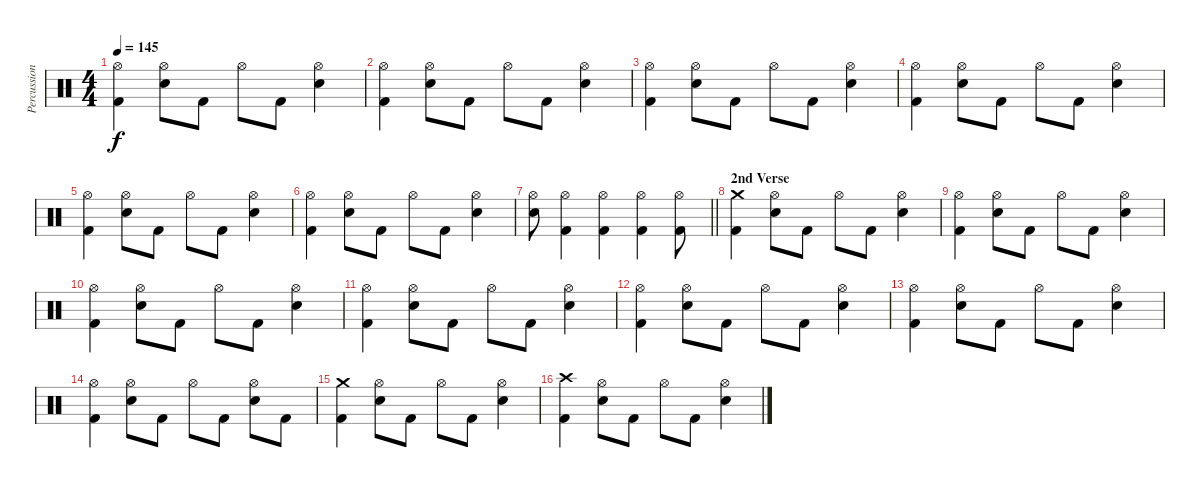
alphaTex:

\track ("Percussion" "Percussion") {instrument percussion}
\staff {score}
\articulation defaults
\ts (4 4)
\tempo 145
\clef neutral
\ks c
("Kick (hit) 2" "Hi-Hat (open)").4{dy f} ("Electric Snare (hit)" "Hi-Hat (open)").8 "Kick (hit) 2".8 "Hi-Hat (open)".8 "Kick (hit) 2".8 ("Electric Snare (hit)" "Hi-Hat (open)").4 |
("Kick (hit) 2" "Hi-Hat (open)").4 ("Electric Snare (hit)" "Hi-Hat (open)").8 "Kick (hit) 2".8 "Hi-Hat (open)".8 "Kick (hit) 2".8 ("Electric Snare (hit)" "Hi-Hat (open)").4 |
("Kick (hit) 2" "Hi-Hat (open)").4 ("Electric Snare (hit)" "Hi-Hat (open)").8 "Kick (hit) 2".8 "Hi-Hat (open)".8 "Kick (hit) 2".8 ("Electric Snare (hit)" "Hi-Hat (open)").4 |
("Kick (hit) 2" "Hi-Hat (open)").4 ("Electric Snare (hit)" "Hi-Hat (open)").8 "Kick (hit) 2".8 "Hi-Hat (open)".8 "Kick (hit) 2".8 ("Electric Snare (hit)" "Hi-Hat (open)").4 |
("Kick (hit) 2" "Hi-Hat (open)").4 ("Electric Snare (hit)" "Hi-Hat (open)").8 "Kick (hit) 2".8 "Hi-Hat (open)".8 "Kick (hit) 2".8 ("Electric Snare (hit)" "Hi-Hat (open)").4 |
("Kick (hit) 2" "Hi-Hat (open)").4 ("Electric Snare (hit)" "Hi-Hat (open)").8 "Kick (hit) 2".8 "Hi-Hat (open)".8 "Kick (hit) 2".8 ("Electric Snare (hit)" "Hi-Hat (open)").4 |
\barLineRight lightlight
("Electric Snare (hit)" "Hi-Hat (open)").8 ("Kick (hit) 2" "Hi-Hat (open)").4 ("Kick (hit) 2" "Hi-Hat (open)").4 ("Kick (hit) 2" "Hi-Hat (open)").4 ("Kick (hit) 2" "Hi-Hat (open)").8 |
\section ("" "2nd Verse")
("Kick (hit) 2" "Crash medium (hit)").4 ("Electric Snare (hit)" "Hi-Hat (open)").8 "Kick (hit) 2".8 "Hi-Hat (open)".8 "Kick (hit) 2".8 ("Electric Snare (hit)" "Hi-Hat (open)").4 |
("Kick (hit) 2" "Hi-Hat (open)").4 ("Electric Snare (hit)" "Hi-Hat (open)").8 "Kick (hit) 2".8 "Hi-Hat (open)".8 "Kick (hit) 2".8 ("Electric Snare (hit)" "Hi-Hat (open)").4 |
("Kick (hit) 2" "Hi-Hat (open)").4 ("Electric Snare (hit)" "Hi-Hat (open)").8 "Kick (hit) 2".8 "Hi-Hat (open)".8 "Kick (hit) 2".8 ("Electric Snare (hit)" "Hi-Hat (open)").4 |
("Kick (hit) 2" "Hi-Hat (open)").4 ("Electric Snare (hit)" "Hi-Hat (open)").8 "Kick (hit) 2".8 "Hi-Hat (open)".8 "Kick (hit) 2".8 ("Electric Snare (hit)" "Hi-Hat (open)").4 |
("Kick (hit) 2" "Hi-Hat (open)").4 ("Electric Snare (hit)" "Hi-Hat (open)").8 "Kick (hit) 2".8 "Hi-Hat (open)".8 "Kick (hit) 2".8 ("Electric Snare (hit)" "Hi-Hat (open)").4 |
("Kick (hit) 2" "Hi-Hat (open)").4 ("Electric Snare (hit)" "Hi-Hat (open)").8 "Kick (hit) 2".8 "Hi-Hat (open)".8 "Kick (hit) 2".8 ("Electric Snare (hit)" "Hi-Hat (open)").4 |
("Kick (hit) 2" "Hi-Hat (open)").4 ("Electric Snare (hit)" "Hi-Hat (open)").8 "Kick (hit) 2".8 "Hi-Hat (open)".8 "Kick (hit) 2".8 ("Electric Snare (hit)" "Hi-Hat (open)").8 "Kick (hit) 2".8 |
("Kick (hit) 2" "Crash medium (hit)").4 ("Electric Snare (hit)" "Hi-Hat (open)").8 "Kick (hit) 2".8 "Hi-Hat (open)".8 "Kick (hit) 2".8 ("Electric Snare (hit)" "Hi-Hat (open)").4 |
("Kick (hit) 2" "Crash high (hit)").4 ("Electric Snare (hit)" "Hi-Hat (open)").8 "Kick (hit) 2".8 "Hi-Hat (open)".8 "Kick (hit) 2".8 ("Electric Snare (hit)" "Hi-Hat (open)").4
